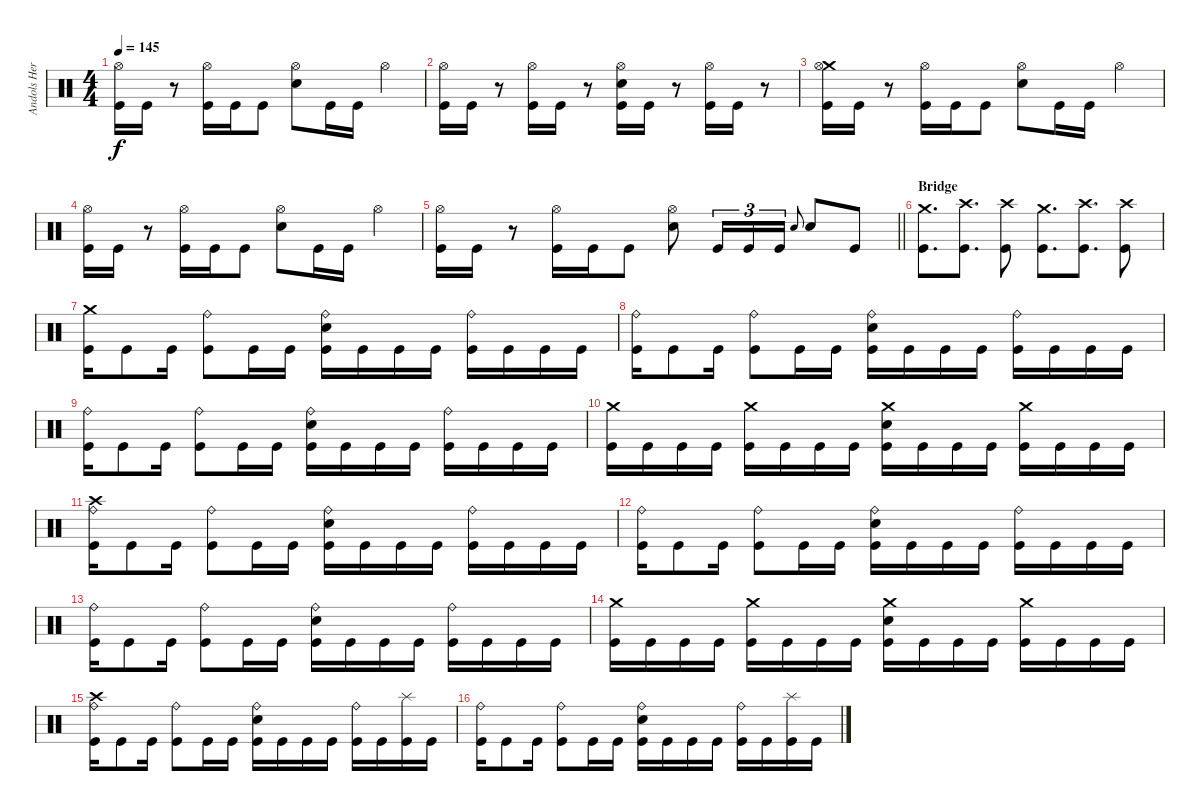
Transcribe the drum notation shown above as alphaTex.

\track ("Andols Herrick" "Andols Her") {instrument percussion}
\staff
\articulation defaults
\ts (4 4)
\tempo 145
\clef neutral
\ks c
("Hi-Hat (open)" "Kick (hit)").16{dy f} "Kick (hit)".16 r.8 ("Hi-Hat (open)" "Kick (hit)").16 "Kick (hit)".16 "Kick (hit)".8 ("Hi-Hat (open)" "Electric Snare (hit)").8 "Kick (hit)".16 "Kick (hit)".16 "Hi-Hat (open)".4 |
("Hi-Hat (open)" "Kick (hit)").16 "Kick (hit)".16 r.8 ("Hi-Hat (open)" "Kick (hit)").16 "Kick (hit)".16 r.8 ("Hi-Hat (open)" "Electric Snare (hit)" "Kick (hit)").16 "Kick (hit)".16 r.8 ("Hi-Hat (open)" "Kick (hit)").16 "Kick (hit)".16 r.8 |
("Crash medium (hit)" "Hi-Hat (open)" "Kick (hit)").16 "Kick (hit)".16 r.8 ("Hi-Hat (open)" "Kick (hit)").16 "Kick (hit)".16 "Kick (hit)".8 ("Hi-Hat (open)" "Electric Snare (hit)").8 "Kick (hit)".16 "Kick (hit)".16 "Hi-Hat (open)".4 |
("Hi-Hat (open)" "Kick (hit)").16 "Kick (hit)".16 r.8 ("Hi-Hat (open)" "Kick (hit)").16 "Kick (hit)".16 "Kick (hit)".8 ("Hi-Hat (open)" "Electric Snare (hit)").8 "Kick (hit)".16 "Kick (hit)".16 "Hi-Hat (open)".4 |
\barLineRight lightlight
("Hi-Hat (open)" "Kick (hit)").16 "Kick (hit)".16 r.8 ("Hi-Hat (open)" "Kick (hit)").16 "Kick (hit)".16 "Kick (hit)".8 ("Hi-Hat (open)" "Electric Snare (hit)").8 "Kick (hit)".16{tu (3 2)} "Kick (hit)".16{tu (3 2)} "Kick (hit)".16{tu (3 2)} "Electric Snare (hit)".8{gr onbeat} "Electric Snare (hit)".8 "Kick (hit)".8 |
\section ("" "Bridge")
("Crash medium (hit)" "Kick (hit)").8{d} ("Crash high (hit)" "Kick (hit)").8{d} ("Crash high (hit)" "Kick (hit)").8 ("Crash medium (hit)" "Kick (hit)").8{d} ("Crash high (hit)" "Kick (hit)").8{d} ("Crash high (hit)" "Kick (hit)").8 |
("Crash medium (hit)" "Kick (hit)").16 "Kick (hit)".8 "Kick (hit)".16 ("Ride (bell)" "Kick (hit)").8 "Kick (hit)".16 "Kick (hit)".16 ("Ride (bell)" "Electric Snare (hit)" "Kick (hit)").16 "Kick (hit)".16 "Kick (hit)".16 "Kick (hit)".16 ("Ride (bell)" "Kick (hit)").16 "Kick (hit)".16 "Kick (hit)".16 "Kick (hit)".16 |
("Ride (bell)" "Kick (hit)").16 "Kick (hit)".8 "Kick (hit)".16 ("Ride (bell)" "Kick (hit)").8 "Kick (hit)".16 "Kick (hit)".16 ("Ride (bell)" "Electric Snare (hit)" "Kick (hit)").16 "Kick (hit)".16 "Kick (hit)".16 "Kick (hit)".16 ("Ride (bell)" "Kick (hit)").16 "Kick (hit)".16 "Kick (hit)".16 "Kick (hit)".16 |
("Ride (bell)" "Kick (hit)").16 "Kick (hit)".8 "Kick (hit)".16 ("Ride (bell)" "Kick (hit)").8 "Kick (hit)".16 "Kick (hit)".16 ("Ride (bell)" "Electric Snare (hit)" "Kick (hit)").16 "Kick (hit)".16 "Kick (hit)".16 "Kick (hit)".16 ("Ride (bell)" "Kick (hit)").16 "Kick (hit)".16 "Kick (hit)".16 "Kick (hit)".16 |
("Crash medium (hit)" "Kick (hit)").16 "Kick (hit)".16 "Kick (hit)".16 "Kick (hit)".16 ("Crash medium (hit)" "Kick (hit)").16 "Kick (hit)".16 "Kick (hit)".16 "Kick (hit)".16 ("Crash medium (hit)" "Electric Snare (hit)" "Kick (hit)").16 "Kick (hit)".16 "Kick (hit)".16 "Kick (hit)".16 ("Crash medium (hit)" "Kick (hit)").16 "Kick (hit)".16 "Kick (hit)".16 "Kick (hit)".16 |
("Crash high (hit)" "Ride (bell)" "Kick (hit)").16 "Kick (hit)".8 "Kick (hit)".16 ("Ride (bell)" "Kick (hit)").8 "Kick (hit)".16 "Kick (hit)".16 ("Ride (bell)" "Electric Snare (hit)" "Kick (hit)").16 "Kick (hit)".16 "Kick (hit)".16 "Kick (hit)".16 ("Ride (bell)" "Kick (hit)").16 "Kick (hit)".16 "Kick (hit)".16 "Kick (hit)".16 |
("Ride (bell)" "Kick (hit)").16 "Kick (hit)".8 "Kick (hit)".16 ("Ride (bell)" "Kick (hit)").8 "Kick (hit)".16 "Kick (hit)".16 ("Ride (bell)" "Electric Snare (hit)" "Kick (hit)").16 "Kick (hit)".16 "Kick (hit)".16 "Kick (hit)".16 ("Ride (bell)" "Kick (hit)").16 "Kick (hit)".16 "Kick (hit)".16 "Kick (hit)".16 |
("Ride (bell)" "Kick (hit)").16 "Kick (hit)".8 "Kick (hit)".16 ("Ride (bell)" "Kick (hit)").8 "Kick (hit)".16 "Kick (hit)".16 ("Ride (bell)" "Electric Snare (hit)" "Kick (hit)").16 "Kick (hit)".16 "Kick (hit)".16 "Kick (hit)".16 ("Ride (bell)" "Kick (hit)").16 "Kick (hit)".16 "Kick (hit)".16 "Kick (hit)".16 |
("Crash medium (hit)" "Kick (hit)").16 "Kick (hit)".16 "Kick (hit)".16 "Kick (hit)".16 ("Crash medium (hit)" "Kick (hit)").16 "Kick (hit)".16 "Kick (hit)".16 "Kick (hit)".16 ("Crash medium (hit)" "Electric Snare (hit)" "Kick (hit)").16 "Kick (hit)".16 "Kick (hit)".16 "Kick (hit)".16 ("Crash medium (hit)" "Kick (hit)").16 "Kick (hit)".16 "Kick (hit)".16 "Kick (hit)".16 |
("Crash high (hit)" "Ride (bell)" "Kick (hit)").16 "Kick (hit)".8 "Kick (hit)".16 ("Ride (bell)" "Kick (hit)").8 "Kick (hit)".16 "Kick (hit)".16 ("Ride (bell)" "Electric Snare (hit)" "Kick (hit)").16 "Kick (hit)".16 "Kick (hit)".16 "Kick (hit)".16 ("Ride (bell)" "Kick (hit)").16 "Kick (hit)".16 ("Splash (hit)" "Kick (hit)").16 "Kick (hit)".16 |
("Ride (bell)" "Kick (hit)").16 "Kick (hit)".8 "Kick (hit)".16 ("Ride (bell)" "Kick (hit)").8 "Kick (hit)".16 "Kick (hit)".16 ("Ride (bell)" "Electric Snare (hit)" "Kick (hit)").16 "Kick (hit)".16 "Kick (hit)".16 "Kick (hit)".16 ("Ride (bell)" "Kick (hit)").16 "Kick (hit)".16 ("Splash (hit)" "Kick (hit)").16 "Kick (hit)".16
